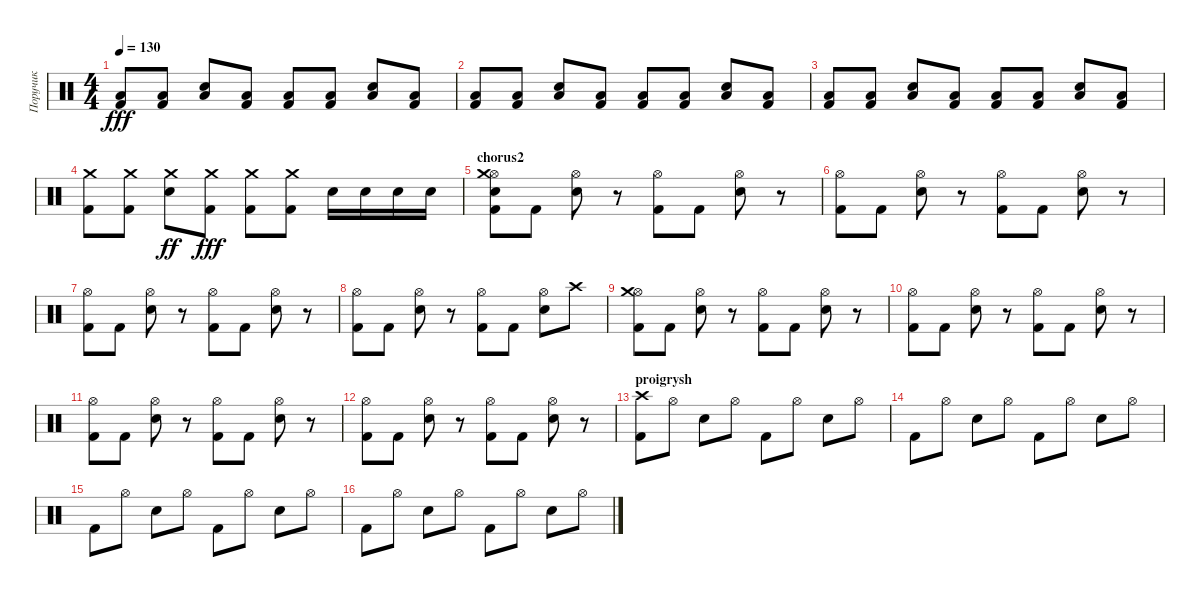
\track ("Поручик" "Поручик") {instrument percussion}
\staff {score}
\articulation defaults
\ts (4 4)
\tempo 130
\clef neutral
\ks c
("Kick (hit) 2" "Low Tom (hit)").8{dy fff} ("Kick (hit) 2" "Low Tom (hit)").8 ("Snare (hit) 2" "Low Tom (hit)").8 ("Kick (hit) 2" "Low Tom (hit)").8 ("Kick (hit) 2" "Low Tom (hit)").8 ("Kick (hit) 2" "Low Tom (hit)").8 ("Snare (hit) 2" "Low Tom (hit)").8 ("Kick (hit) 2" "Low Tom (hit)").8 |
("Kick (hit) 2" "Low Tom (hit)").8 ("Kick (hit) 2" "Low Tom (hit)").8 ("Snare (hit) 2" "Low Tom (hit)").8 ("Kick (hit) 2" "Low Tom (hit)").8 ("Kick (hit) 2" "Low Tom (hit)").8 ("Kick (hit) 2" "Low Tom (hit)").8 ("Snare (hit) 2" "Low Tom (hit)").8 ("Kick (hit) 2" "Low Tom (hit)").8 |
("Kick (hit) 2" "Low Tom (hit)").8 ("Kick (hit) 2" "Low Tom (hit)").8 ("Snare (hit) 2" "Low Tom (hit)").8 ("Kick (hit) 2" "Low Tom (hit)").8 ("Kick (hit) 2" "Low Tom (hit)").8 ("Kick (hit) 2" "Low Tom (hit)").8 ("Snare (hit) 2" "Low Tom (hit)").8 ("Kick (hit) 2" "Low Tom (hit)").8 |
("Kick (hit) 2" "Crash medium (hit)").8 ("Kick (hit) 2" "Crash medium (hit)").8 ("Snare (hit) 2" "Crash medium (hit)").8{dy ff} ("Kick (hit) 2" "Crash medium (hit)").8{dy fff} ("Kick (hit) 2" "Crash medium (hit)").8 ("Kick (hit) 2" "Crash medium (hit)").8 "Snare (hit) 2".16 "Snare (hit) 2".16 "Snare (hit) 2".16 "Snare (hit) 2".16 |
\section ("" "chorus2")
("Kick (hit) 2" "Hi-Hat (open)" "Crash medium (hit)" "Snare (hit) 2").8 "Kick (hit) 2".8 ("Snare (hit) 2" "Hi-Hat (open)").8 r.8 ("Kick (hit) 2" "Hi-Hat (open)").8 "Kick (hit) 2".8 ("Snare (hit) 2" "Hi-Hat (open)").8 r.8 |
("Kick (hit) 2" "Hi-Hat (open)").8 "Kick (hit) 2".8 ("Snare (hit) 2" "Hi-Hat (open)").8 r.8 ("Kick (hit) 2" "Hi-Hat (open)").8 "Kick (hit) 2".8 ("Snare (hit) 2" "Hi-Hat (open)").8 r.8 |
("Kick (hit) 2" "Hi-Hat (open)").8 "Kick (hit) 2".8 ("Snare (hit) 2" "Hi-Hat (open)").8 r.8 ("Kick (hit) 2" "Hi-Hat (open)").8 "Kick (hit) 2".8 ("Snare (hit) 2" "Hi-Hat (open)").8 r.8 |
("Kick (hit) 2" "Hi-Hat (open)").8 "Kick (hit) 2".8 ("Snare (hit) 2" "Hi-Hat (open)").8 r.8 ("Kick (hit) 2" "Hi-Hat (open)").8 "Kick (hit) 2".8 ("Snare (hit) 2" "Hi-Hat (open)").8 "Crash high (hit)".8 |
("Kick (hit) 2" "Hi-Hat (open)" "Crash medium (hit)").8 "Kick (hit) 2".8 ("Snare (hit) 2" "Hi-Hat (open)").8 r.8 ("Kick (hit) 2" "Hi-Hat (open)").8 "Kick (hit) 2".8 ("Snare (hit) 2" "Hi-Hat (open)").8 r.8 |
("Kick (hit) 2" "Hi-Hat (open)").8 "Kick (hit) 2".8 ("Snare (hit) 2" "Hi-Hat (open)").8 r.8 ("Kick (hit) 2" "Hi-Hat (open)").8 "Kick (hit) 2".8 ("Snare (hit) 2" "Hi-Hat (open)").8 r.8 |
("Kick (hit) 2" "Hi-Hat (open)").8 "Kick (hit) 2".8 ("Snare (hit) 2" "Hi-Hat (open)").8 r.8 ("Kick (hit) 2" "Hi-Hat (open)").8 "Kick (hit) 2".8 ("Snare (hit) 2" "Hi-Hat (open)").8 r.8 |
("Kick (hit) 2" "Hi-Hat (open)").8 "Kick (hit) 2".8 ("Snare (hit) 2" "Hi-Hat (open)").8 r.8 ("Kick (hit) 2" "Hi-Hat (open)").8 "Kick (hit) 2".8 ("Snare (hit) 2" "Hi-Hat (open)").8 r.8 |
\section ("" "proigrysh")
("Kick (hit) 2" "Crash high (hit)").8 "Hi-Hat (open)".8 "Snare (hit) 2".8 "Hi-Hat (open)".8 "Kick (hit) 2".8 "Hi-Hat (open)".8 "Snare (hit) 2".8 "Hi-Hat (open)".8 |
"Kick (hit) 2".8 "Hi-Hat (open)".8 "Snare (hit) 2".8 "Hi-Hat (open)".8 "Kick (hit) 2".8 "Hi-Hat (open)".8 "Snare (hit) 2".8 "Hi-Hat (open)".8 |
"Kick (hit) 2".8 "Hi-Hat (open)".8 "Snare (hit) 2".8 "Hi-Hat (open)".8 "Kick (hit) 2".8 "Hi-Hat (open)".8 "Snare (hit) 2".8 "Hi-Hat (open)".8 |
"Kick (hit) 2".8 "Hi-Hat (open)".8 "Snare (hit) 2".8 "Hi-Hat (open)".8 "Kick (hit) 2".8 "Hi-Hat (open)".8 "Snare (hit) 2".8 "Hi-Hat (open)".8
